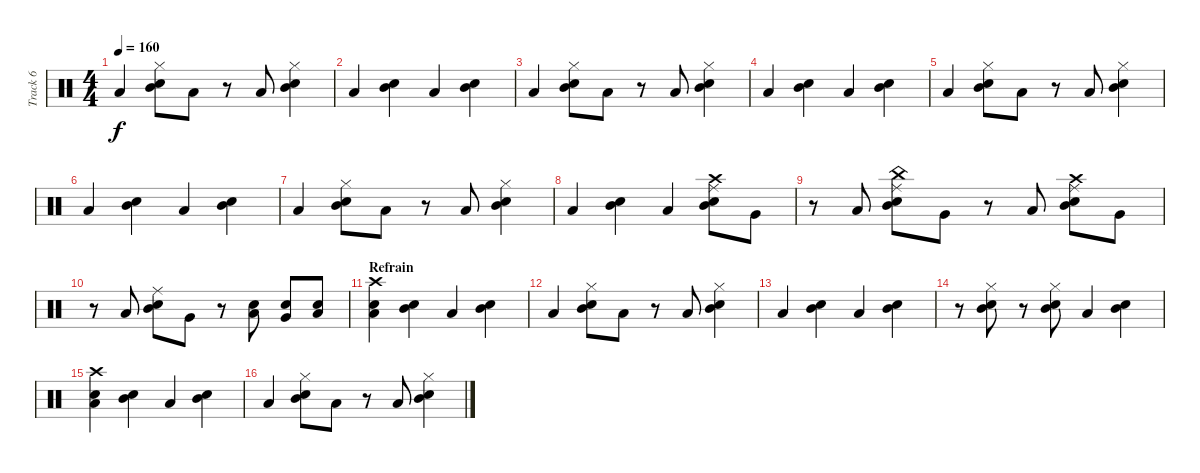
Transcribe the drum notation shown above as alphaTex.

\track ("Track 6" "Track 6") {instrument percussion}
\staff {score}
\articulation defaults
\ts (4 4)
\tempo 160
\clef neutral
\ks c "Low Tom (hit)".4{dy f}
("Mid Tom (hit)" "Hi-Hat (closed)" "Snare (hit) 2").8 "Low Tom (hit)".8 r.8 "Low Tom (hit)".8 ("Mid Tom (hit)" "Hi-Hat (closed)" "Snare (hit) 2").4 |
"Low Tom (hit)".4 ("Mid Tom (hit)" "Snare (hit) 2").4 "Low Tom (hit)".4 ("Mid Tom (hit)" "Snare (hit) 2").4 |
"Low Tom (hit)".4 ("Mid Tom (hit)" "Hi-Hat (closed)" "Snare (hit) 2").8 "Low Tom (hit)".8 r.8 "Low Tom (hit)".8 ("Mid Tom (hit)" "Hi-Hat (closed)" "Snare (hit) 2").4 |
"Low Tom (hit)".4 ("Mid Tom (hit)" "Snare (hit) 2").4 "Low Tom (hit)".4 ("Mid Tom (hit)" "Snare (hit) 2").4 |
"Low Tom (hit)".4 ("Mid Tom (hit)" "Hi-Hat (closed)" "Snare (hit) 2").8 "Low Tom (hit)".8 r.8 "Low Tom (hit)".8 ("Mid Tom (hit)" "Hi-Hat (closed)" "Snare (hit) 2").4 |
"Low Tom (hit)".4 ("Mid Tom (hit)" "Snare (hit) 2").4 "Low Tom (hit)".4 ("Mid Tom (hit)" "Snare (hit) 2").4 |
"Low Tom (hit)".4 ("Mid Tom (hit)" "Hi-Hat (closed)" "Snare (hit) 2").8 "Low Tom (hit)".8 r.8 "Low Tom (hit)".8 ("Mid Tom (hit)" "Hi-Hat (closed)" "Snare (hit) 2").4 |
"Low Tom (hit)".4 ("Mid Tom (hit)" "Snare (hit) 2").4 "Low Tom (hit)".4 ("Mid Tom (hit)" "Snare (hit) 2" "Ride (middle)" "Crash high (hit)").8 "Very Low Tom (hit)".8 |
r.8 "Low Tom (hit)".8 ("Mid Tom (hit)" "Snare (hit) 2" "Ride (middle)" "China (hit)").8 "Very Low Tom (hit)".8 r.8 "Low Tom (hit)".8 ("Mid Tom (hit)" "Snare (hit) 2" "Ride (middle)" "Crash high (hit)").8 "Very Low Tom (hit)".8 |
r.8 "Low Tom (hit)".8 ("Mid Tom (hit)" "Snare (hit) 2" "Ride (middle)").8 "Very Low Tom (hit)".8 r.8 ("Low Floor Tom (hit)" "Snare (hit) 2").8 ("Very Low Tom (hit)" "Snare (hit) 2").8 ("Low Tom (hit)" "Snare (hit) 2").8 |
\section ("" "Refrain")
("Low Tom (hit)" "Snare (hit) 2" "Crash high (hit)").4 ("Mid Tom (hit)" "Snare (hit) 2").4 "Low Tom (hit)".4 ("Mid Tom (hit)" "Snare (hit) 2").4 |
"Low Tom (hit)".4 ("Mid Tom (hit)" "Hi-Hat (closed)" "Snare (hit) 2").8 "Low Tom (hit)".8 r.8 "Low Tom (hit)".8 ("Mid Tom (hit)" "Hi-Hat (closed)" "Snare (hit) 2").4 |
"Low Tom (hit)".4 ("Mid Tom (hit)" "Snare (hit) 2").4 "Low Tom (hit)".4 ("Mid Tom (hit)" "Snare (hit) 2").4 |
r.8 ("Mid Tom (hit)" "Hi-Hat (closed)" "Snare (hit) 2").8 r.8 ("Mid Tom (hit)" "Hi-Hat (closed)" "Snare (hit) 2").8 "Low Tom (hit)".4 ("Mid Tom (hit)" "Snare (hit) 2").4 |
("Low Tom (hit)" "Snare (hit) 2" "Crash high (hit)").4 ("Mid Tom (hit)" "Snare (hit) 2").4 "Low Tom (hit)".4 ("Mid Tom (hit)" "Snare (hit) 2").4 |
"Low Tom (hit)".4 ("Mid Tom (hit)" "Hi-Hat (closed)" "Snare (hit) 2").8 "Low Tom (hit)".8 r.8 "Low Tom (hit)".8 ("Mid Tom (hit)" "Hi-Hat (closed)" "Snare (hit) 2").4
